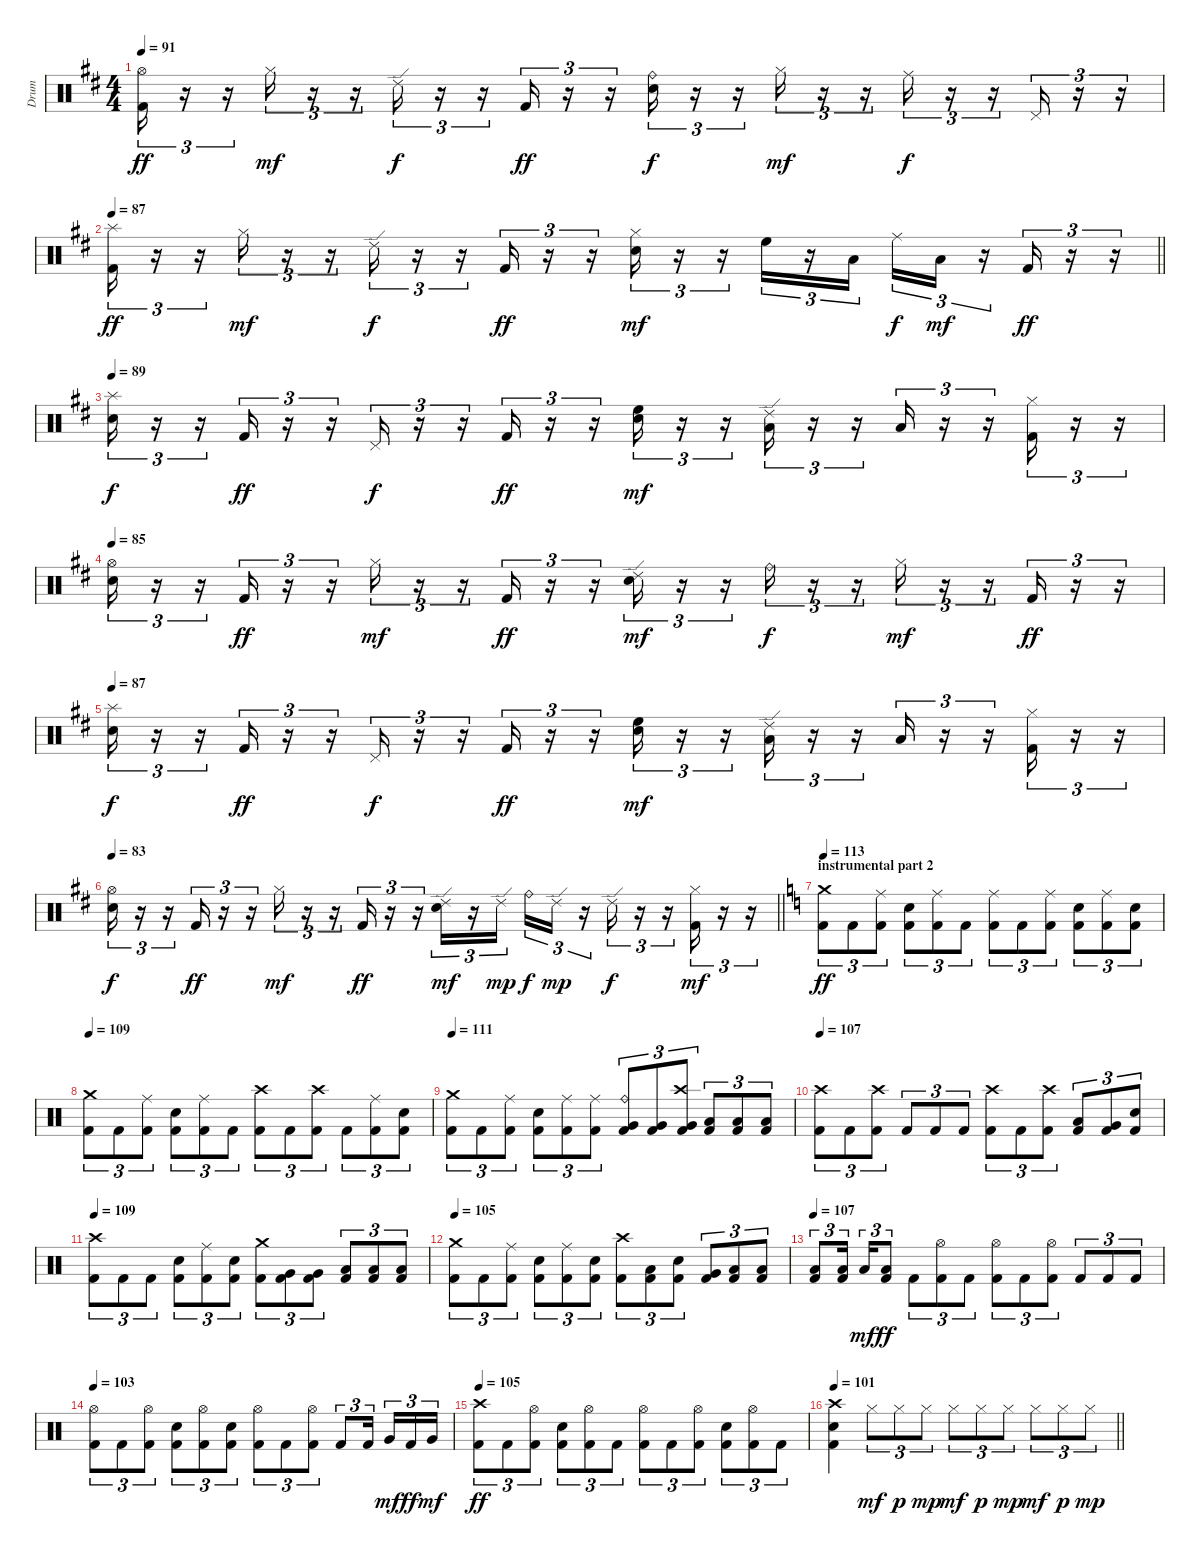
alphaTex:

\track ("Drum" "Drum") {instrument percussion}
\staff {score}
\articulation defaults
\ts (4 4)
\tempo 91
\clef neutral
\ks d
("Kick (hit) 2" "Hi-Hat (open)").16{tu (3 2) dy ff} r.16{tu (3 2)} r.16{tu (3 2)} "Hi-Hat (closed)".16{tu (3 2) dy mf} r.16{tu (3 2)} r.16{tu (3 2)} "Ride (edge) 2".16{tu (3 2) dy f} r.16{tu (3 2)} r.16{tu (3 2)} "Kick (hit) 2".16{tu (3 2) dy ff} r.16{tu (3 2)} r.16{tu (3 2)} ("Electric Snare (hit)" "Ride (bell)").16{tu (3 2) dy f} r.16{tu (3 2)} r.16{tu (3 2)} "Hi-Hat (closed)".16{tu (3 2) dy mf} r.16{tu (3 2)} r.16{tu (3 2)} "Ride (middle)".16{tu (3 2) dy f} r.16{tu (3 2)} r.16{tu (3 2)} "Pedal Hi-Hat (hit)".16{tu (3 2)} r.16{tu (3 2)} r.16{tu (3 2)} |
\tempo 87
\barLineRight lightlight
("Kick (hit) 2" "Splash (hit)").16{tu (3 2) dy ff} r.16{tu (3 2)} r.16{tu (3 2)} "Hi-Hat (closed)".16{tu (3 2) dy mf} r.16{tu (3 2)} r.16{tu (3 2)} "Ride (edge) 2".16{tu (3 2) dy f} r.16{tu (3 2)} r.16{tu (3 2)} "Kick (hit) 2".16{tu (3 2) dy ff} r.16{tu (3 2)} r.16{tu (3 2)} ("Electric Snare (hit)" "Hi-Hat (closed)").16{tu (3 2) dy mf} r.16{tu (3 2)} r.16{tu (3 2)} "High Floor Tom (hit)".16{tu (3 2)} r.16{tu (3 2)} "Low Tom (hit)".16{tu (3 2)} "Ride (middle)".16{tu (3 2) dy f} "Low Floor Tom (hit)".16{tu (3 2) dy mf} r.16{tu (3 2)} "Kick (hit) 2".16{tu (3 2) dy ff} r.16{tu (3 2)} r.16{tu (3 2)} |
\tempo 89
("Electric Snare (hit)" "Splash (hit)").16{tu (3 2) dy f} r.16{tu (3 2)} r.16{tu (3 2)} "Kick (hit) 2".16{tu (3 2) dy ff} r.16{tu (3 2)} r.16{tu (3 2)} "Pedal Hi-Hat (hit)".16{tu (3 2) dy f} r.16{tu (3 2)} r.16{tu (3 2)} "Kick (hit) 2".16{tu (3 2) dy ff} r.16{tu (3 2)} r.16{tu (3 2)} ("Electric Snare (hit)" "High Floor Tom (hit)").16{tu (3 2) dy mf} r.16{tu (3 2)} r.16{tu (3 2)} ("Low Tom (hit)" "Ride (edge) 2").16{tu (3 2)} r.16{tu (3 2)} r.16{tu (3 2)} "Low Floor Tom (hit)".16{tu (3 2)} r.16{tu (3 2)} r.16{tu (3 2)} ("Kick (hit) 2" "Hi-Hat (closed)").16{tu (3 2)} r.16{tu (3 2)} r.16{tu (3 2)} |
\tempo 85
("Electric Snare (hit)" "Hi-Hat (open)").16{tu (3 2)} r.16{tu (3 2)} r.16{tu (3 2)} "Kick (hit) 2".16{tu (3 2) dy ff} r.16{tu (3 2)} r.16{tu (3 2)} "Hi-Hat (closed)".16{tu (3 2) dy mf} r.16{tu (3 2)} r.16{tu (3 2)} "Kick (hit) 2".16{tu (3 2) dy ff} r.16{tu (3 2)} r.16{tu (3 2)} ("Electric Snare (hit)" "Ride (edge) 2").16{tu (3 2) dy mf} r.16{tu (3 2)} r.16{tu (3 2)} "Ride (bell)".16{tu (3 2) dy f} r.16{tu (3 2)} r.16{tu (3 2)} "Hi-Hat (closed)".16{tu (3 2) dy mf} r.16{tu (3 2)} r.16{tu (3 2)} "Kick (hit) 2".16{tu (3 2) dy ff} r.16{tu (3 2)} r.16{tu (3 2)} |
\tempo 87
("Electric Snare (hit)" "Splash (hit)").16{tu (3 2) dy f} r.16{tu (3 2)} r.16{tu (3 2)} "Kick (hit) 2".16{tu (3 2) dy ff} r.16{tu (3 2)} r.16{tu (3 2)} "Pedal Hi-Hat (hit)".16{tu (3 2) dy f} r.16{tu (3 2)} r.16{tu (3 2)} "Kick (hit) 2".16{tu (3 2) dy ff} r.16{tu (3 2)} r.16{tu (3 2)} ("Electric Snare (hit)" "High Floor Tom (hit)").16{tu (3 2) dy mf} r.16{tu (3 2)} r.16{tu (3 2)} ("Low Tom (hit)" "Ride (edge) 2").16{tu (3 2)} r.16{tu (3 2)} r.16{tu (3 2)} "Low Floor Tom (hit)".16{tu (3 2)} r.16{tu (3 2)} r.16{tu (3 2)} ("Kick (hit) 2" "Hi-Hat (closed)").16{tu (3 2)} r.16{tu (3 2)} r.16{tu (3 2)} |
\tempo 83
\barLineRight lightlight
("Electric Snare (hit)" "Hi-Hat (open)").16{tu (3 2) dy f} r.16{tu (3 2)} r.16{tu (3 2)} "Kick (hit) 2".16{tu (3 2) dy ff} r.16{tu (3 2)} r.16{tu (3 2)} "Hi-Hat (closed)".16{tu (3 2) dy mf} r.16{tu (3 2)} r.16{tu (3 2)} "Kick (hit) 2".16{tu (3 2) dy ff} r.16{tu (3 2)} r.16{tu (3 2)} ("Electric Snare (hit)" "Ride (edge) 2").16{tu (3 2) dy mf} r.16{tu (3 2)} "Ride (edge) 2".16{tu (3 2) dy mp beam splitsecondary} "Ride (bell)".16{tu (3 2) dy f} "Ride (edge) 2".16{tu (3 2) dy mp} r.16{tu (3 2)} "Ride (edge) 2".16{tu (3 2) dy f} r.16{tu (3 2)} r.16{tu (3 2)} ("Kick (hit) 2" "Hi-Hat (closed)").16{tu (3 2) dy mf} r.16{tu (3 2)} r.16{tu (3 2)} |
\section ("" "instrumental part 2")
\tempo 113
\ks c
("Crash medium (hit)" "Kick (hit) 2").8{tu (3 2) dy ff} "Kick (hit) 2".8{tu (3 2)} ("Ride (middle)" "Kick (hit) 2").8{tu (3 2)} ("Electric Snare (hit)" "Kick (hit) 2").8{tu (3 2)} ("Ride (middle)" "Kick (hit) 2").8{tu (3 2)} "Kick (hit) 2".8{tu (3 2)} ("Ride (middle)" "Kick (hit) 2").8{tu (3 2)} "Kick (hit) 2".8{tu (3 2)} ("Ride (middle)" "Kick (hit) 2").8{tu (3 2)} ("Electric Snare (hit)" "Kick (hit) 2").8{tu (3 2)} ("Ride (middle)" "Kick (hit) 2").8{tu (3 2)} ("Electric Snare (hit)" "Kick (hit) 2").8{tu (3 2)} |
\tempo 109
("Crash medium (hit)" "Kick (hit) 2").8{tu (3 2)} "Kick (hit) 2".8{tu (3 2)} ("Ride (middle)" "Kick (hit) 2").8{tu (3 2)} ("Electric Snare (hit)" "Kick (hit) 2").8{tu (3 2)} ("Ride (middle)" "Kick (hit) 2").8{tu (3 2)} "Kick (hit) 2".8{tu (3 2)} ("Crash high (hit)" "Kick (hit) 2").8{tu (3 2)} "Kick (hit) 2".8{tu (3 2)} ("Crash high (hit)" "Kick (hit) 2").8{tu (3 2)} "Kick (hit) 2".8{tu (3 2)} ("Ride (middle)" "Kick (hit) 2").8{tu (3 2)} ("Electric Snare (hit)" "Kick (hit) 2").8{tu (3 2)} |
\tempo 111
("Crash medium (hit)" "Kick (hit) 2").8{tu (3 2)} "Kick (hit) 2".8{tu (3 2)} ("Ride (middle)" "Kick (hit) 2").8{tu (3 2)} ("Electric Snare (hit)" "Kick (hit) 2").8{tu (3 2)} ("Ride (middle)" "Kick (hit) 2").8{tu (3 2)} ("Ride (middle)" "Kick (hit) 2").8{tu (3 2)} ("Ride (bell)" "Very Low Tom (hit)" "Kick (hit) 2").8{tu (3 2)} ("Very Low Tom (hit)" "Kick (hit) 2").8{tu (3 2)} ("Crash high (hit)" "Very Low Tom (hit)" "Kick (hit) 2").8{tu (3 2)} ("Low Floor Tom (hit)" "Kick (hit) 2").8{tu (3 2)} ("Low Floor Tom (hit)" "Kick (hit) 2").8{tu (3 2)} ("Low Floor Tom (hit)" "Kick (hit) 2").8{tu (3 2)} |
\tempo 107
("Crash high (hit)" "Kick (hit) 2").8{tu (3 2)} "Kick (hit) 2".8{tu (3 2)} ("Crash high (hit)" "Kick (hit) 2").8{tu (3 2)} "Kick (hit) 2".8{tu (3 2)} "Kick (hit) 2".8{tu (3 2)} "Kick (hit) 2".8{tu (3 2)} ("Crash high (hit)" "Kick (hit) 2").8{tu (3 2)} "Kick (hit) 2".8{tu (3 2)} ("Crash high (hit)" "Kick (hit) 2").8{tu (3 2)} ("Low Tom (hit)" "Kick (hit) 2").8{tu (3 2)} ("Very Low Tom (hit)" "Kick (hit) 2").8{tu (3 2)} ("Electric Snare (hit)" "Kick (hit) 2").8{tu (3 2)} |
\tempo 109
("Crash high (hit)" "Kick (hit) 2").8{tu (3 2)} "Kick (hit) 2".8{tu (3 2)} "Kick (hit) 2".8{tu (3 2)} ("Electric Snare (hit)" "Kick (hit) 2").8{tu (3 2)} ("Ride (middle)" "Kick (hit) 2").8{tu (3 2)} ("Electric Snare (hit)" "Kick (hit) 2").8{tu (3 2)} ("Crash medium (hit)" "Kick (hit) 2").8{tu (3 2)} ("Very Low Tom (hit)" "Kick (hit) 2").8{tu (3 2)} ("Very Low Tom (hit)" "Kick (hit) 2").8{tu (3 2)} ("Low Floor Tom (hit)" "Kick (hit) 2").8{tu (3 2)} ("Low Floor Tom (hit)" "Kick (hit) 2").8{tu (3 2)} ("Low Floor Tom (hit)" "Kick (hit) 2").8{tu (3 2)} |
\tempo 105
("Crash medium (hit)" "Kick (hit) 2").8{tu (3 2)} "Kick (hit) 2".8{tu (3 2)} ("Ride (middle)" "Kick (hit) 2").8{tu (3 2)} ("Electric Snare (hit)" "Kick (hit) 2").8{tu (3 2)} ("Ride (middle)" "Kick (hit) 2").8{tu (3 2)} ("Electric Snare (hit)" "Kick (hit) 2").8{tu (3 2)} ("Crash high (hit)" "Kick (hit) 2").8{tu (3 2)} ("Low Tom (hit)" "Kick (hit) 2").8{tu (3 2)} ("Electric Snare (hit)" "Kick (hit) 2").8{tu (3 2)} ("Very Low Tom (hit)" "Kick (hit) 2").8{tu (3 2)} ("Low Floor Tom (hit)" "Kick (hit) 2").8{tu (3 2)} ("Low Floor Tom (hit)" "Kick (hit) 2").8{tu (3 2)} |
\tempo 107
("Low Tom (hit)" "Kick (hit) 2").8{tu (3 2)} ("Low Tom (hit)" "Kick (hit) 2").16{tu (3 2) beam splitsecondary} "Low Tom (hit)".16{tu (3 2) dy mf} ("Low Tom (hit)" "Kick (hit) 2").8{tu (3 2) dy ff} "Kick (hit) 2".8{tu (3 2)} ("Hi-Hat (open)" "Kick (hit) 2").8{tu (3 2)} "Kick (hit) 2".8{tu (3 2)} ("Hi-Hat (open)" "Kick (hit) 2").8{tu (3 2)} "Kick (hit) 2".8{tu (3 2)} ("Hi-Hat (open)" "Kick (hit) 2").8{tu (3 2)} "Kick (hit) 2".8{tu (3 2)} "Kick (hit) 2".8{tu (3 2)} "Kick (hit) 2".8{tu (3 2)} |
\tempo 103
("Hi-Hat (open)" "Kick (hit) 2").8{tu (3 2)} "Kick (hit) 2".8{tu (3 2)} ("Hi-Hat (open)" "Kick (hit) 2").8{tu (3 2)} ("Electric Snare (hit)" "Kick (hit) 2").8{tu (3 2)} ("Hi-Hat (open)" "Kick (hit) 2").8{tu (3 2)} ("Electric Snare (hit)" "Kick (hit) 2").8{tu (3 2)} ("Hi-Hat (open)" "Kick (hit) 2").8{tu (3 2)} "Kick (hit) 2".8{tu (3 2)} ("Hi-Hat (open)" "Kick (hit) 2").8{tu (3 2)} "Kick (hit) 2".8{tu (3 2)} "Kick (hit) 2".16{tu (3 2) beam splitsecondary} "Very Low Tom (hit)".16{tu (3 2) dy mf} "Kick (hit) 2".16{tu (3 2) dy ff} "Very Low Tom (hit)".16{tu (3 2) dy mf} |
\tempo 105
("Crash high (hit)" "Kick (hit) 2").8{tu (3 2) dy ff} "Kick (hit) 2".8{tu (3 2)} ("Hi-Hat (open)" "Kick (hit) 2").8{tu (3 2)} ("Electric Snare (hit)" "Kick (hit) 2").8{tu (3 2)} ("Hi-Hat (open)" "Kick (hit) 2").8{tu (3 2)} "Kick (hit) 2".8{tu (3 2)} ("Hi-Hat (open)" "Kick (hit) 2").8{tu (3 2)} "Kick (hit) 2".8{tu (3 2)} ("Hi-Hat (open)" "Kick (hit) 2").8{tu (3 2)} ("Electric Snare (hit)" "Kick (hit) 2").8{tu (3 2)} ("Hi-Hat (open)" "Kick (hit) 2").8{tu (3 2)} "Kick (hit) 2".8{tu (3 2)} |
\tempo 101
\barLineRight lightlight
("Crash high (hit)" "Electric Snare (hit)" "Kick (hit) 2").4 "Hi-Hat (closed)".8{tu (3 2) dy mf} "Hi-Hat (closed)".8{tu (3 2) dy p} "Hi-Hat (closed)".8{tu (3 2) dy mp} "Hi-Hat (closed)".8{tu (3 2) dy mf} "Hi-Hat (closed)".8{tu (3 2) dy p} "Hi-Hat (closed)".8{tu (3 2) dy mp} "Hi-Hat (closed)".8{tu (3 2) dy mf} "Hi-Hat (closed)".8{tu (3 2) dy p} "Hi-Hat (closed)".8{tu (3 2) dy mp}
